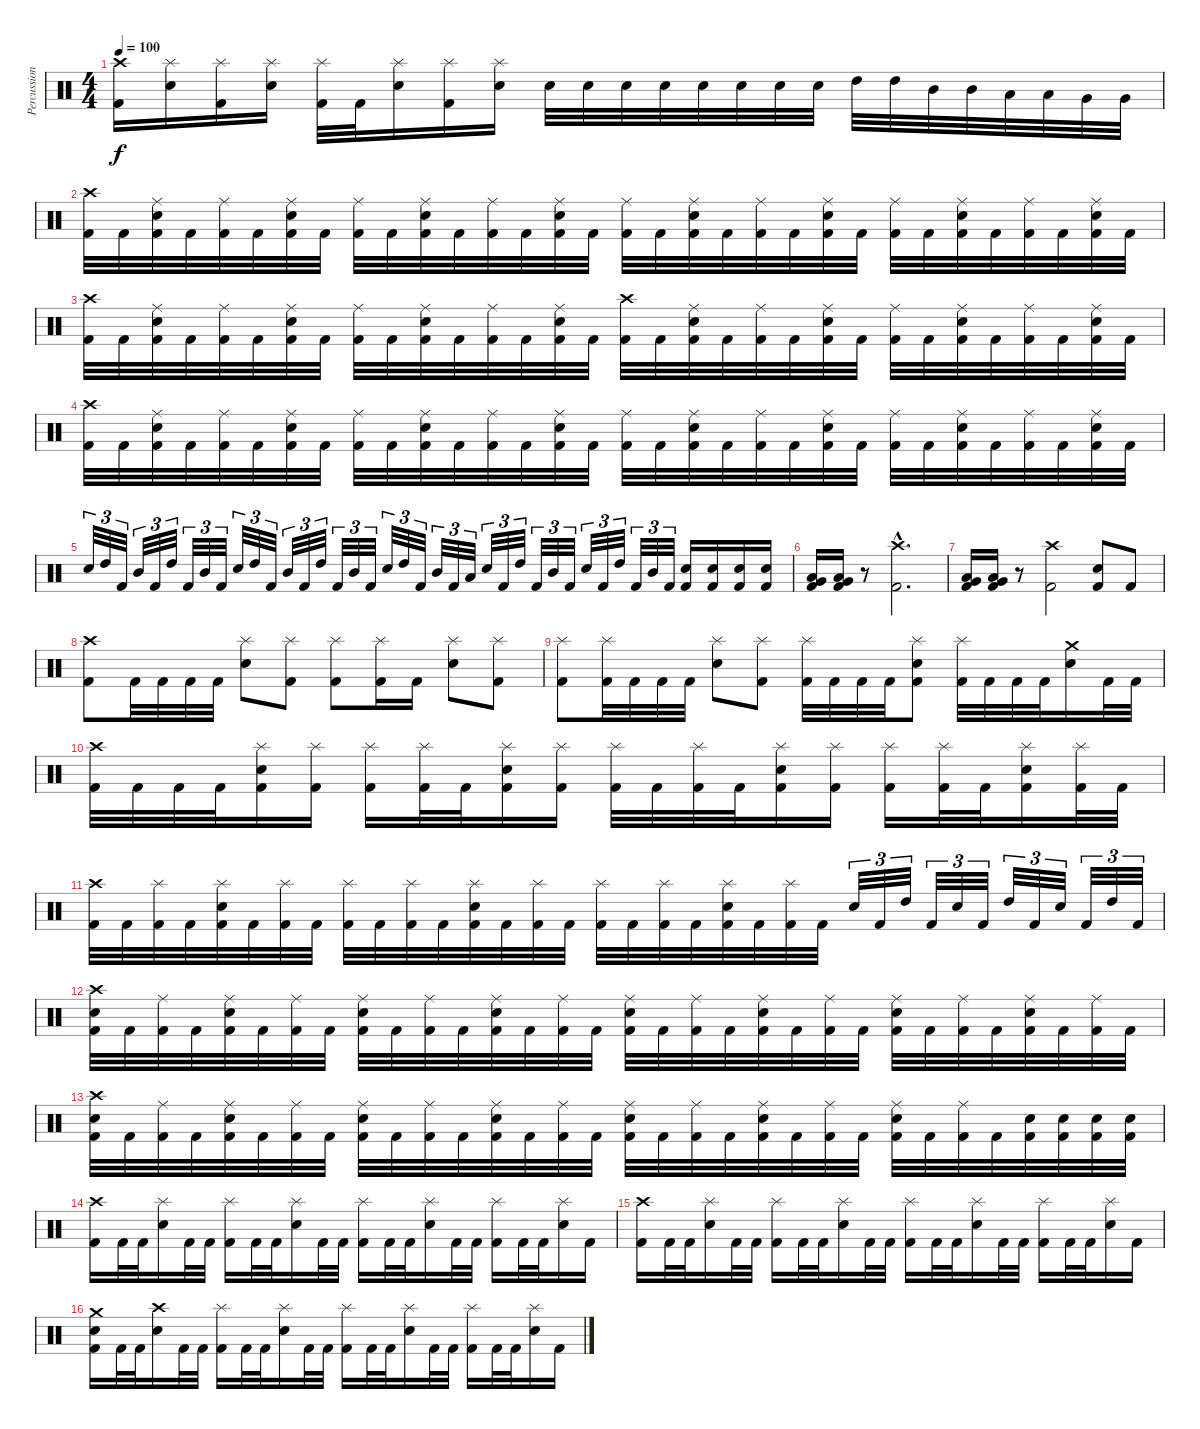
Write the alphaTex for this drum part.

\track ("Percussion" "Percussion") {instrument percussion}
\staff {score}
\articulation defaults
\ts (4 4)
\tempo 100
\clef neutral
\ks c
("Crash high (hit)" "Kick (hit) 2").16{dy f} ("Splash (hit)" "Electric Snare (hit)").16 ("Splash (hit)" "Kick (hit) 2").16 ("Splash (hit)" "Electric Snare (hit)").16 ("Splash (hit)" "Kick (hit) 2").32 "Kick (hit) 2".32 ("Splash (hit)" "Electric Snare (hit)").16 ("Splash (hit)" "Kick (hit) 2").16 ("Splash (hit)" "Electric Snare (hit)").16 "Electric Snare (hit)".32 "Electric Snare (hit)".32 "Electric Snare (hit)".32 "Electric Snare (hit)".32 "Electric Snare (hit)".32 "Electric Snare (hit)".32 "Electric Snare (hit)".32 "Electric Snare (hit)".32 "High Tom (hit)".32 "High Tom (hit)".32 "Mid Tom (hit)".32 "Mid Tom (hit)".32 "Low Tom (hit)".32 "Low Tom (hit)".32 "Very Low Tom (hit)".32 "Very Low Tom (hit)".32 |
("Crash high (hit)" "Kick (hit) 2").32 "Kick (hit) 2".32 ("Ride (middle)" "Electric Snare (hit)" "Kick (hit) 2").32 "Kick (hit) 2".32 ("Ride (middle)" "Kick (hit) 2").32 "Kick (hit) 2".32 ("Ride (middle)" "Electric Snare (hit)" "Kick (hit) 2").32 "Kick (hit) 2".32 ("Ride (middle)" "Kick (hit) 2").32 "Kick (hit) 2".32 ("Ride (middle)" "Electric Snare (hit)" "Kick (hit) 2").32 "Kick (hit) 2".32 ("Ride (middle)" "Kick (hit) 2").32 "Kick (hit) 2".32 ("Ride (middle)" "Electric Snare (hit)" "Kick (hit) 2").32 "Kick (hit) 2".32 ("Ride (middle)" "Kick (hit) 2").32 "Kick (hit) 2".32 ("Ride (middle)" "Electric Snare (hit)" "Kick (hit) 2").32 "Kick (hit) 2".32 ("Ride (middle)" "Kick (hit) 2").32 "Kick (hit) 2".32 ("Ride (middle)" "Electric Snare (hit)" "Kick (hit) 2").32 "Kick (hit) 2".32 ("Ride (middle)" "Kick (hit) 2").32 "Kick (hit) 2".32 ("Ride (middle)" "Electric Snare (hit)" "Kick (hit) 2").32 "Kick (hit) 2".32 ("Ride (middle)" "Kick (hit) 2").32 "Kick (hit) 2".32 ("Ride (middle)" "Electric Snare (hit)" "Kick (hit) 2").32 "Kick (hit) 2".32 |
("Crash high (hit)" "Kick (hit) 2").32 "Kick (hit) 2".32 ("Ride (middle)" "Electric Snare (hit)" "Kick (hit) 2").32 "Kick (hit) 2".32 ("Ride (middle)" "Kick (hit) 2").32 "Kick (hit) 2".32 ("Ride (middle)" "Electric Snare (hit)" "Kick (hit) 2").32 "Kick (hit) 2".32 ("Ride (middle)" "Kick (hit) 2").32 "Kick (hit) 2".32 ("Ride (middle)" "Electric Snare (hit)" "Kick (hit) 2").32 "Kick (hit) 2".32 ("Ride (middle)" "Kick (hit) 2").32 "Kick (hit) 2".32 ("Ride (middle)" "Electric Snare (hit)" "Kick (hit) 2").32 "Kick (hit) 2".32 ("Crash high (hit)" "Kick (hit) 2").32 "Kick (hit) 2".32 ("Ride (middle)" "Electric Snare (hit)" "Kick (hit) 2").32 "Kick (hit) 2".32 ("Ride (middle)" "Kick (hit) 2").32 "Kick (hit) 2".32 ("Ride (middle)" "Electric Snare (hit)" "Kick (hit) 2").32 "Kick (hit) 2".32 ("Ride (middle)" "Kick (hit) 2").32 "Kick (hit) 2".32 ("Ride (middle)" "Electric Snare (hit)" "Kick (hit) 2").32 "Kick (hit) 2".32 ("Ride (middle)" "Kick (hit) 2").32 "Kick (hit) 2".32 ("Ride (middle)" "Electric Snare (hit)" "Kick (hit) 2").32 "Kick (hit) 2".32 |
("Crash high (hit)" "Kick (hit) 2").32 "Kick (hit) 2".32 ("Ride (middle)" "Electric Snare (hit)" "Kick (hit) 2").32 "Kick (hit) 2".32 ("Ride (middle)" "Kick (hit) 2").32 "Kick (hit) 2".32 ("Ride (middle)" "Electric Snare (hit)" "Kick (hit) 2").32 "Kick (hit) 2".32 ("Ride (middle)" "Kick (hit) 2").32 "Kick (hit) 2".32 ("Ride (middle)" "Electric Snare (hit)" "Kick (hit) 2").32 "Kick (hit) 2".32 ("Ride (middle)" "Kick (hit) 2").32 "Kick (hit) 2".32 ("Ride (middle)" "Electric Snare (hit)" "Kick (hit) 2").32 "Kick (hit) 2".32 ("Ride (middle)" "Kick (hit) 2").32 "Kick (hit) 2".32 ("Ride (middle)" "Electric Snare (hit)" "Kick (hit) 2").32 "Kick (hit) 2".32 ("Ride (middle)" "Kick (hit) 2").32 "Kick (hit) 2".32 ("Ride (middle)" "Electric Snare (hit)" "Kick (hit) 2").32 "Kick (hit) 2".32 ("Ride (middle)" "Kick (hit) 2").32 "Kick (hit) 2".32 ("Ride (middle)" "Electric Snare (hit)" "Kick (hit) 2").32 "Kick (hit) 2".32 ("Ride (middle)" "Kick (hit) 2").32 "Kick (hit) 2".32 ("Ride (middle)" "Electric Snare (hit)" "Kick (hit) 2").32 "Kick (hit) 2".32 |
"Electric Snare (hit)".32{tu (3 2)} "High Tom (hit)".32{tu (3 2)} "Kick (hit) 2".32{tu (3 2)} "Mid Tom (hit)".32{tu (3 2)} "Kick (hit) 2".32{tu (3 2)} "High Tom (hit)".32{tu (3 2)} "Kick (hit) 2".32{tu (3 2)} "Mid Tom (hit)".32{tu (3 2)} "Kick (hit) 2".32{tu (3 2)} "Electric Snare (hit)".32{tu (3 2)} "High Tom (hit)".32{tu (3 2)} "Kick (hit) 2".32{tu (3 2)} "Mid Tom (hit)".32{tu (3 2)} "Kick (hit) 2".32{tu (3 2)} "High Tom (hit)".32{tu (3 2)} "Kick (hit) 2".32{tu (3 2)} "Mid Tom (hit)".32{tu (3 2)} "Kick (hit) 2".32{tu (3 2)} "Electric Snare (hit)".32{tu (3 2)} "High Tom (hit)".32{tu (3 2)} "Kick (hit) 2".32{tu (3 2)} "Mid Tom (hit)".32{tu (3 2)} "Kick (hit) 2".32{tu (3 2)} "Low Tom (hit)".32{tu (3 2)} "Electric Snare (hit)".32{tu (3 2)} "Kick (hit) 2".32{tu (3 2)} "High Tom (hit)".32{tu (3 2)} "Kick (hit) 2".32{tu (3 2)} "Mid Tom (hit)".32{tu (3 2)} "Kick (hit) 2".32{tu (3 2)} "Electric Snare (hit)".32{tu (3 2)} "Kick (hit) 2".32{tu (3 2)} "High Tom (hit)".32{tu (3 2)} "Kick (hit) 2".32{tu (3 2)} "Mid Tom (hit)".32{tu (3 2)} "Kick (hit) 2".32{tu (3 2)} ("Electric Snare (hit)" "Kick (hit) 2").16 ("Electric Snare (hit)" "Kick (hit) 2").16 ("Electric Snare (hit)" "Kick (hit) 2").16 ("Electric Snare (hit)" "Kick (hit) 2").16 |
("Low Tom (hit)" "Very Low Tom (hit)" "Kick (hit) 2").16 ("Low Tom (hit)" "Very Low Tom (hit)" "Kick (hit) 2").16 r.8 ("Crash high (hit)"{hac} "Kick (hit) 2"{hac}).2{d} |
("Low Tom (hit)" "Very Low Tom (hit)" "Kick (hit) 2").16 ("Low Tom (hit)" "Very Low Tom (hit)" "Kick (hit) 2").16 r.8 ("Crash high (hit)" "Kick (hit) 2").2 ("Electric Snare (hit)" "Kick (hit) 2").8 "Kick (hit) 2".8 |
("Crash high (hit)" "Kick (hit) 2").8 "Kick (hit) 2".32 "Kick (hit) 2".32 "Kick (hit) 2".32 "Kick (hit) 2".32 ("Splash (hit)" "Electric Snare (hit)").8 ("Splash (hit)" "Kick (hit) 2").8 ("Splash (hit)" "Kick (hit) 2").8 ("Splash (hit)" "Kick (hit) 2").16 "Kick (hit) 2".16 ("Splash (hit)" "Electric Snare (hit)").8 ("Splash (hit)" "Kick (hit) 2").8 |
("Splash (hit)" "Kick (hit) 2").8 ("Splash (hit)" "Kick (hit) 2").32 "Kick (hit) 2".32 "Kick (hit) 2".32 "Kick (hit) 2".32 ("Splash (hit)" "Electric Snare (hit)").8 ("Splash (hit)" "Kick (hit) 2").8 ("Splash (hit)" "Kick (hit) 2").32 "Kick (hit) 2".32 "Kick (hit) 2".32 "Kick (hit) 2".32 ("Splash (hit)" "Electric Snare (hit)" "Kick (hit) 2").8 ("Splash (hit)" "Kick (hit) 2").32 "Kick (hit) 2".32 "Kick (hit) 2".32 "Kick (hit) 2".32 ("Crash medium (hit)" "Electric Snare (hit)").16 "Kick (hit) 2".32 "Kick (hit) 2".32 |
("Crash high (hit)" "Kick (hit) 2").32 "Kick (hit) 2".32 "Kick (hit) 2".32 "Kick (hit) 2".32 ("Splash (hit)" "Electric Snare (hit)" "Kick (hit) 2").16 ("Splash (hit)" "Kick (hit) 2").16 ("Splash (hit)" "Kick (hit) 2").16 ("Splash (hit)" "Kick (hit) 2").32 "Kick (hit) 2".32 ("Splash (hit)" "Electric Snare (hit)" "Kick (hit) 2").16 ("Splash (hit)" "Kick (hit) 2").16 ("Splash (hit)" "Kick (hit) 2").32 "Kick (hit) 2".32 ("Splash (hit)" "Kick (hit) 2").32 "Kick (hit) 2".32 ("Splash (hit)" "Electric Snare (hit)" "Kick (hit) 2").16 ("Splash (hit)" "Kick (hit) 2").16 ("Splash (hit)" "Kick (hit) 2").16 ("Splash (hit)" "Kick (hit) 2").32 "Kick (hit) 2".32 ("Splash (hit)" "Electric Snare (hit)" "Kick (hit) 2").16 ("Splash (hit)" "Kick (hit) 2").32 "Kick (hit) 2".32 |
("Crash high (hit)" "Kick (hit) 2").32 "Kick (hit) 2".32 ("Splash (hit)" "Kick (hit) 2").32 "Kick (hit) 2".32 ("Splash (hit)" "Electric Snare (hit)" "Kick (hit) 2").32 "Kick (hit) 2".32 ("Splash (hit)" "Kick (hit) 2").32 "Kick (hit) 2".32 ("Splash (hit)" "Kick (hit) 2").32 "Kick (hit) 2".32 ("Splash (hit)" "Kick (hit) 2").32 "Kick (hit) 2".32 ("Splash (hit)" "Electric Snare (hit)" "Kick (hit) 2").32 "Kick (hit) 2".32 ("Splash (hit)" "Kick (hit) 2").32 "Kick (hit) 2".32 ("Splash (hit)" "Kick (hit) 2").32 "Kick (hit) 2".32 ("Splash (hit)" "Kick (hit) 2").32 "Kick (hit) 2".32 ("Splash (hit)" "Electric Snare (hit)" "Kick (hit) 2").32 "Kick (hit) 2".32 ("Splash (hit)" "Kick (hit) 2").32 "Kick (hit) 2".32 "Electric Snare (hit)".32{tu (3 2)} "Kick (hit) 2".32{tu (3 2)} "High Tom (hit)".32{tu (3 2)} "Kick (hit) 2".32{tu (3 2)} "Electric Snare (hit)".32{tu (3 2)} "Kick (hit) 2".32{tu (3 2)} "High Tom (hit)".32{tu (3 2)} "Kick (hit) 2".32{tu (3 2)} "Electric Snare (hit)".32{tu (3 2)} "Kick (hit) 2".32{tu (3 2)} "High Tom (hit)".32{tu (3 2)} "Kick (hit) 2".32{tu (3 2)} |
("Crash high (hit)" "Electric Snare (hit)" "Kick (hit) 2").32 "Kick (hit) 2".32 ("Ride (middle)" "Kick (hit) 2").32 "Kick (hit) 2".32 ("Ride (middle)" "Electric Snare (hit)" "Kick (hit) 2").32 "Kick (hit) 2".32 ("Ride (middle)" "Kick (hit) 2").32 "Kick (hit) 2".32 ("Ride (middle)" "Electric Snare (hit)" "Kick (hit) 2").32 "Kick (hit) 2".32 ("Ride (middle)" "Kick (hit) 2").32 "Kick (hit) 2".32 ("Ride (middle)" "Electric Snare (hit)" "Kick (hit) 2").32 "Kick (hit) 2".32 ("Ride (middle)" "Kick (hit) 2").32 "Kick (hit) 2".32 ("Ride (middle)" "Electric Snare (hit)" "Kick (hit) 2").32 "Kick (hit) 2".32 ("Ride (middle)" "Kick (hit) 2").32 "Kick (hit) 2".32 ("Ride (middle)" "Electric Snare (hit)" "Kick (hit) 2").32 "Kick (hit) 2".32 ("Ride (middle)" "Kick (hit) 2").32 "Kick (hit) 2".32 ("Ride (middle)" "Electric Snare (hit)" "Kick (hit) 2").32 "Kick (hit) 2".32 ("Ride (middle)" "Kick (hit) 2").32 "Kick (hit) 2".32 ("Ride (middle)" "Electric Snare (hit)" "Kick (hit) 2").32 "Kick (hit) 2".32 ("Ride (middle)" "Kick (hit) 2").32 "Kick (hit) 2".32 |
("Crash high (hit)" "Electric Snare (hit)" "Kick (hit) 2").32 "Kick (hit) 2".32 ("Ride (middle)" "Kick (hit) 2").32 "Kick (hit) 2".32 ("Ride (middle)" "Electric Snare (hit)" "Kick (hit) 2").32 "Kick (hit) 2".32 ("Ride (middle)" "Kick (hit) 2").32 "Kick (hit) 2".32 ("Ride (middle)" "Electric Snare (hit)" "Kick (hit) 2").32 "Kick (hit) 2".32 ("Ride (middle)" "Kick (hit) 2").32 "Kick (hit) 2".32 ("Ride (middle)" "Electric Snare (hit)" "Kick (hit) 2").32 "Kick (hit) 2".32 ("Ride (middle)" "Kick (hit) 2").32 "Kick (hit) 2".32 ("Ride (middle)" "Electric Snare (hit)" "Kick (hit) 2").32 "Kick (hit) 2".32 ("Ride (middle)" "Kick (hit) 2").32 "Kick (hit) 2".32 ("Ride (middle)" "Electric Snare (hit)" "Kick (hit) 2").32 "Kick (hit) 2".32 ("Ride (middle)" "Kick (hit) 2").32 "Kick (hit) 2".32 ("Ride (middle)" "Electric Snare (hit)" "Kick (hit) 2").32 "Kick (hit) 2".32 ("Ride (middle)" "Kick (hit) 2").32 "Kick (hit) 2".32 ("Electric Snare (hit)" "Kick (hit) 2").32 ("Electric Snare (hit)" "Kick (hit) 2").32 ("Electric Snare (hit)" "Kick (hit) 2").32 ("Electric Snare (hit)" "Kick (hit) 2").32 |
("Crash high (hit)" "Kick (hit) 2").16 "Kick (hit) 2".32 "Kick (hit) 2".32 ("Splash (hit)" "Electric Snare (hit)").16 "Kick (hit) 2".32 "Kick (hit) 2".32 ("Splash (hit)" "Kick (hit) 2").16 "Kick (hit) 2".32 "Kick (hit) 2".32 ("Splash (hit)" "Electric Snare (hit)").16 "Kick (hit) 2".32 "Kick (hit) 2".32 ("Splash (hit)" "Kick (hit) 2").16 "Kick (hit) 2".32 "Kick (hit) 2".32 ("Splash (hit)" "Electric Snare (hit)").16 "Kick (hit) 2".32 "Kick (hit) 2".32 ("Splash (hit)" "Kick (hit) 2").16 "Kick (hit) 2".32 "Kick (hit) 2".32 ("Splash (hit)" "Electric Snare (hit)").16 "Kick (hit) 2".16 |
("Crash high (hit)" "Kick (hit) 2").16 "Kick (hit) 2".32 "Kick (hit) 2".32 ("Splash (hit)" "Electric Snare (hit)").16 "Kick (hit) 2".32 "Kick (hit) 2".32 ("Splash (hit)" "Kick (hit) 2").16 "Kick (hit) 2".32 "Kick (hit) 2".32 ("Splash (hit)" "Electric Snare (hit)").16 "Kick (hit) 2".32 "Kick (hit) 2".32 ("Splash (hit)" "Kick (hit) 2").16 "Kick (hit) 2".32 "Kick (hit) 2".32 ("Splash (hit)" "Electric Snare (hit)").16 "Kick (hit) 2".32 "Kick (hit) 2".32 ("Splash (hit)" "Kick (hit) 2").16 "Kick (hit) 2".32 "Kick (hit) 2".32 ("Splash (hit)" "Electric Snare (hit)").16 "Kick (hit) 2".16 |
("Crash medium (hit)" "Electric Snare (hit)" "Kick (hit) 2").16 "Kick (hit) 2".32 "Kick (hit) 2".32 ("Crash high (hit)" "Electric Snare (hit)").16 "Kick (hit) 2".32 "Kick (hit) 2".32 ("Splash (hit)" "Kick (hit) 2").16 "Kick (hit) 2".32 "Kick (hit) 2".32 ("Splash (hit)" "Electric Snare (hit)").16 "Kick (hit) 2".32 "Kick (hit) 2".32 ("Splash (hit)" "Kick (hit) 2").16 "Kick (hit) 2".32 "Kick (hit) 2".32 ("Splash (hit)" "Electric Snare (hit)").16 "Kick (hit) 2".32 "Kick (hit) 2".32 ("Splash (hit)" "Kick (hit) 2").16 "Kick (hit) 2".32 "Kick (hit) 2".32 ("Splash (hit)" "Electric Snare (hit)").16 "Kick (hit) 2".16
